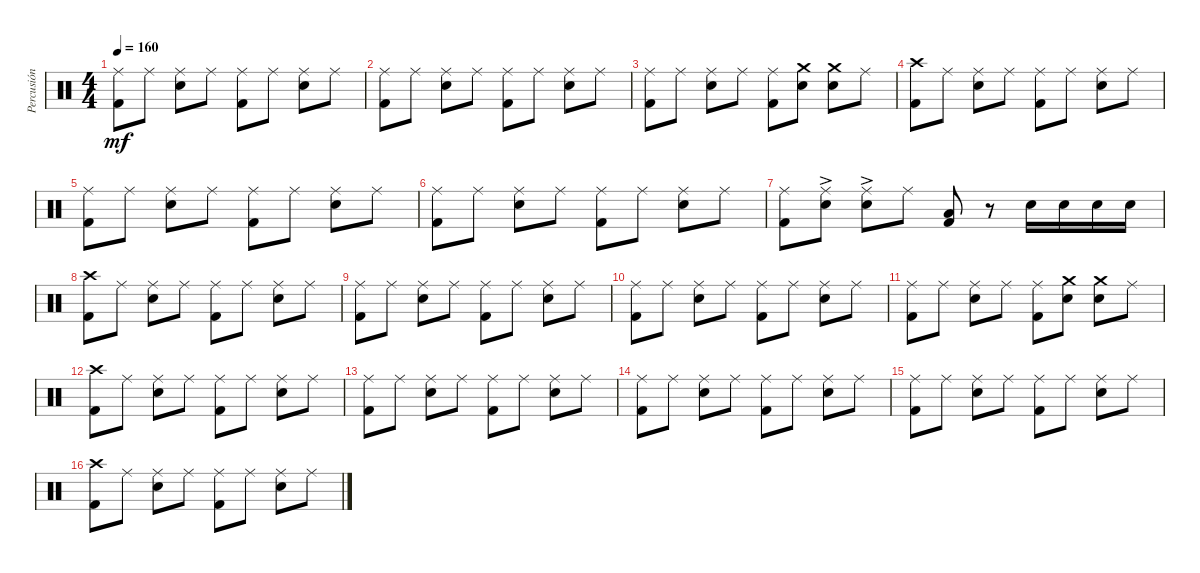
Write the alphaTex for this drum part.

\track ("Percusión" "Percusión") {instrument percussion}
\staff {score}
\articulation defaults
\ts (4 4)
\tempo 160
\clef neutral
\ks c
("Ride (middle)" "Kick (hit) 2").8{dy mf} "Ride (middle)".8 ("Ride (middle)" "Electric Snare (hit)").8 "Ride (middle)".8 ("Ride (middle)" "Kick (hit) 2").8 "Ride (middle)".8 ("Ride (middle)" "Electric Snare (hit)").8 "Ride (middle)".8 |
("Ride (middle)" "Kick (hit) 2").8 "Ride (middle)".8 ("Ride (middle)" "Electric Snare (hit)").8 "Ride (middle)".8 ("Ride (middle)" "Kick (hit) 2").8 "Ride (middle)".8 ("Ride (middle)" "Electric Snare (hit)").8 "Ride (middle)".8 |
("Ride (middle)" "Kick (hit) 2").8 "Ride (middle)".8 ("Ride (middle)" "Electric Snare (hit)").8 "Ride (middle)".8 ("Ride (middle)" "Kick (hit) 2").8 ("Crash medium (hit)" "Electric Snare (hit)").8 ("Crash medium (hit)" "Electric Snare (hit)").8 "Ride (middle)".8 |
("Crash high (hit)" "Kick (hit) 2").8 "Ride (middle)".8 ("Ride (middle)" "Electric Snare (hit)").8 "Ride (middle)".8 ("Ride (middle)" "Kick (hit) 2").8 "Ride (middle)".8 ("Ride (middle)" "Electric Snare (hit)").8 "Ride (middle)".8 |
("Ride (middle)" "Kick (hit) 2").8 "Ride (middle)".8 ("Ride (middle)" "Electric Snare (hit)").8 "Ride (middle)".8 ("Ride (middle)" "Kick (hit) 2").8 "Ride (middle)".8 ("Ride (middle)" "Electric Snare (hit)").8 "Ride (middle)".8 |
("Ride (middle)" "Kick (hit) 2").8 "Ride (middle)".8 ("Ride (middle)" "Electric Snare (hit)").8 "Ride (middle)".8 ("Ride (middle)" "Kick (hit) 2").8 "Ride (middle)".8 ("Ride (middle)" "Electric Snare (hit)").8 "Ride (middle)".8 |
("Ride (middle)" "Kick (hit) 2").8 ("Ride (middle)" "Electric Snare (hit)"{ac}).8 ("Ride (middle)" "Electric Snare (hit)"{ac}).8 "Ride (middle)".8 ("Low Floor Tom (hit)" "Kick (hit) 2").8 r.8 "Electric Snare (hit)".16 "Electric Snare (hit)".16 "Electric Snare (hit)".16 "Electric Snare (hit)".16 |
("Crash high (hit)" "Kick (hit) 2").8 "Ride (middle)".8 ("Ride (middle)" "Electric Snare (hit)").8 "Ride (middle)".8 ("Ride (middle)" "Kick (hit) 2").8 "Ride (middle)".8 ("Ride (middle)" "Electric Snare (hit)").8 "Ride (middle)".8 |
("Ride (middle)" "Kick (hit) 2").8 "Ride (middle)".8 ("Ride (middle)" "Electric Snare (hit)").8 "Ride (middle)".8 ("Ride (middle)" "Kick (hit) 2").8 "Ride (middle)".8 ("Ride (middle)" "Electric Snare (hit)").8 "Ride (middle)".8 |
("Ride (middle)" "Kick (hit) 2").8 "Ride (middle)".8 ("Ride (middle)" "Electric Snare (hit)").8 "Ride (middle)".8 ("Ride (middle)" "Kick (hit) 2").8 "Ride (middle)".8 ("Ride (middle)" "Electric Snare (hit)").8 "Ride (middle)".8 |
("Ride (middle)" "Kick (hit) 2").8 "Ride (middle)".8 ("Ride (middle)" "Electric Snare (hit)").8 "Ride (middle)".8 ("Ride (middle)" "Kick (hit) 2").8 ("Crash medium (hit)" "Electric Snare (hit)").8 ("Crash medium (hit)" "Electric Snare (hit)").8 "Ride (middle)".8 |
("Crash high (hit)" "Kick (hit) 2").8 "Ride (middle)".8 ("Ride (middle)" "Electric Snare (hit)").8 "Ride (middle)".8 ("Ride (middle)" "Kick (hit) 2").8 "Ride (middle)".8 ("Ride (middle)" "Electric Snare (hit)").8 "Ride (middle)".8 |
("Ride (middle)" "Kick (hit) 2").8 "Ride (middle)".8 ("Ride (middle)" "Electric Snare (hit)").8 "Ride (middle)".8 ("Ride (middle)" "Kick (hit) 2").8 "Ride (middle)".8 ("Ride (middle)" "Electric Snare (hit)").8 "Ride (middle)".8 |
("Ride (middle)" "Kick (hit) 2").8 "Ride (middle)".8 ("Ride (middle)" "Electric Snare (hit)").8 "Ride (middle)".8 ("Ride (middle)" "Kick (hit) 2").8 "Ride (middle)".8 ("Ride (middle)" "Electric Snare (hit)").8 "Ride (middle)".8 |
("Ride (middle)" "Kick (hit) 2").8 "Ride (middle)".8 ("Ride (middle)" "Electric Snare (hit)").8 "Ride (middle)".8 ("Ride (middle)" "Kick (hit) 2").8 "Ride (middle)".8 ("Ride (middle)" "Electric Snare (hit)").8 "Ride (middle)".8 |
("Crash high (hit)" "Kick (hit) 2").8 "Ride (middle)".8 ("Ride (middle)" "Electric Snare (hit)").8 "Ride (middle)".8 ("Ride (middle)" "Kick (hit) 2").8 "Ride (middle)".8 ("Ride (middle)" "Electric Snare (hit)").8 "Ride (middle)".8
